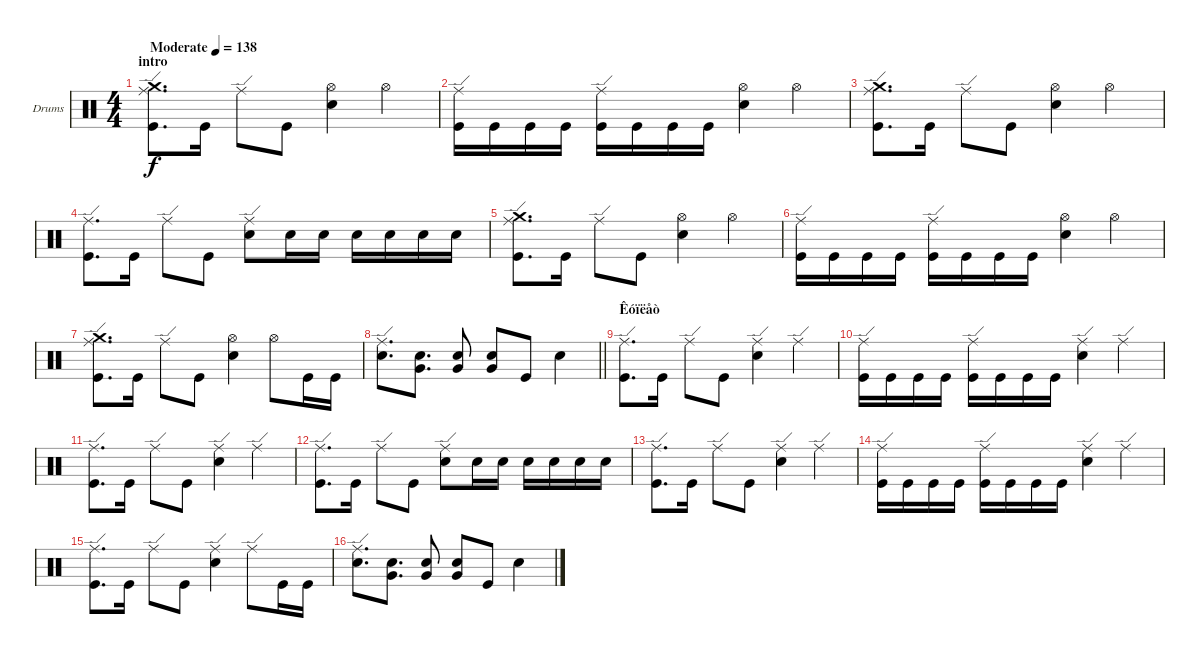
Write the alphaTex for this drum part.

\bracketExtendMode groupsimilarinstruments
\firstSystemTrackNameOrientation horizontal
\otherSystemsTrackNameOrientation horizontal
\track ("Drumkit" "Drums") {instrument percussion}
\staff {score}
\articulation defaults
\ts (4 4)
\beaming (8 2 2 2 2)
\section ("" "intro")
\tempo (138 "Moderate")
\clef neutral
\ks c
("Kick (hit)" "Crash medium (hit)" "Ride (edge)").8{d dy f} "Kick (hit)".16 "Ride (edge)".8 "Kick (hit)".8 ("Snare (hit) 2" "Hi-Hat (open)").4 "Hi-Hat (open)".4 |
("Kick (hit)" "Ride (edge)").16 "Kick (hit)".16 "Kick (hit)".16 "Kick (hit)".16 ("Kick (hit)" "Ride (edge)").16 "Kick (hit)".16 "Kick (hit)".16 "Kick (hit)".16 ("Snare (hit) 2" "Hi-Hat (open)").4 "Hi-Hat (open)".4 |
("Kick (hit)" "Crash medium (hit)" "Ride (edge)").8{d} "Kick (hit)".16 "Ride (edge)".8 "Kick (hit)".8 ("Snare (hit) 2" "Hi-Hat (open)").4 "Hi-Hat (open)".4 |
("Kick (hit)" "Ride (edge)").8{d} "Kick (hit)".16 "Ride (edge)".8 "Kick (hit)".8 ("Snare (hit) 2" "Ride (edge)").8 "Snare (hit) 2".16 "Snare (hit) 2".16 "Snare (hit) 2".16 "Snare (hit) 2".16 "Snare (hit) 2".16 "Snare (hit) 2".16 |
("Kick (hit)" "Crash medium (hit)" "Ride (edge)").8{d} "Kick (hit)".16 "Ride (edge)".8 "Kick (hit)".8 ("Snare (hit) 2" "Hi-Hat (open)").4 "Hi-Hat (open)".4 |
("Kick (hit)" "Ride (edge)").16 "Kick (hit)".16 "Kick (hit)".16 "Kick (hit)".16 ("Kick (hit)" "Ride (edge)").16 "Kick (hit)".16 "Kick (hit)".16 "Kick (hit)".16 ("Snare (hit) 2" "Hi-Hat (open)").4 "Hi-Hat (open)".4 |
("Kick (hit)" "Crash medium (hit)" "Ride (edge)").8{d} "Kick (hit)".16 "Ride (edge)".8 "Kick (hit)".8 ("Snare (hit) 2" "Hi-Hat (open)").4 "Hi-Hat (open)".8 "Kick (hit)".16 "Kick (hit)".16 |
\barLineRight lightlight
("Snare (hit) 2" "Ride (edge)").8{d} ("Snare (hit) 2" "Very Low Tom (hit)").8{d} ("Snare (hit) 2" "Very Low Tom (hit)").8 ("Snare (hit) 2" "Very Low Tom (hit)").8 "Kick (hit)".8 "Snare (hit) 2".4 |
\section ("" "Êóïëåò")
("Kick (hit)" "Ride (edge)").8{d} "Kick (hit)".16 "Ride (edge)".8 "Kick (hit)".8 ("Snare (hit) 2" "Ride (edge)").4 "Ride (edge)".4 |
("Kick (hit)" "Ride (edge)").16 "Kick (hit)".16 "Kick (hit)".16 "Kick (hit)".16 ("Kick (hit)" "Ride (edge)").16 "Kick (hit)".16 "Kick (hit)".16 "Kick (hit)".16 ("Snare (hit) 2" "Ride (edge)").4 "Ride (edge)".4 |
("Kick (hit)" "Ride (edge)").8{d} "Kick (hit)".16 "Ride (edge)".8 "Kick (hit)".8 ("Snare (hit) 2" "Ride (edge)").4 "Ride (edge)".4 |
("Kick (hit)" "Ride (edge)").8{d} "Kick (hit)".16 "Ride (edge)".8 "Kick (hit)".8 ("Snare (hit) 2" "Ride (edge)").8 "Snare (hit) 2".16 "Snare (hit) 2".16 "Snare (hit) 2".16 "Snare (hit) 2".16 "Snare (hit) 2".16 "Snare (hit) 2".16 |
("Kick (hit)" "Ride (edge)").8{d} "Kick (hit)".16 "Ride (edge)".8 "Kick (hit)".8 ("Snare (hit) 2" "Ride (edge)").4 "Ride (edge)".4 |
("Kick (hit)" "Ride (edge)").16 "Kick (hit)".16 "Kick (hit)".16 "Kick (hit)".16 ("Kick (hit)" "Ride (edge)").16 "Kick (hit)".16 "Kick (hit)".16 "Kick (hit)".16 ("Snare (hit) 2" "Ride (edge)").4 "Ride (edge)".4 |
("Kick (hit)" "Ride (edge)").8{d} "Kick (hit)".16 "Ride (edge)".8 "Kick (hit)".8 ("Snare (hit) 2" "Ride (edge)").4 "Ride (edge)".8 "Kick (hit)".16 "Kick (hit)".16 |
("Snare (hit) 2" "Ride (edge)").8{d} ("Snare (hit) 2" "Very Low Tom (hit)").8{d} ("Snare (hit) 2" "Very Low Tom (hit)").8 ("Snare (hit) 2" "Very Low Tom (hit)").8 "Kick (hit)".8 "Snare (hit) 2".4
